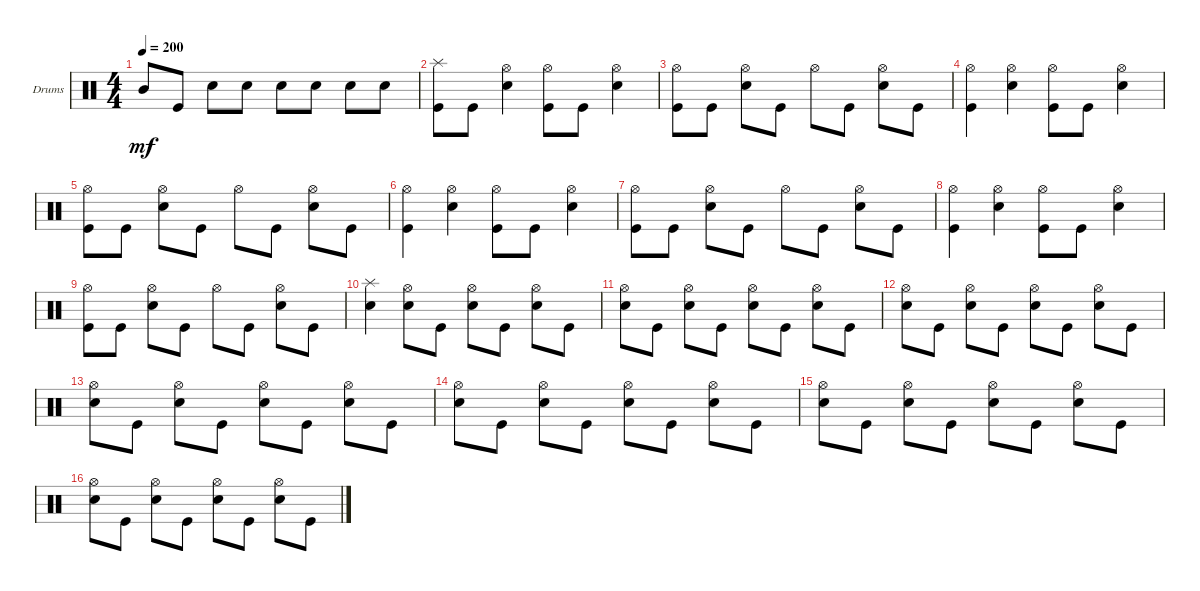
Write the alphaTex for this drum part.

\defaultSystemsLayout 4
\bracketExtendMode groupsimilarinstruments
\firstSystemTrackNameOrientation horizontal
\otherSystemsTrackNameOrientation horizontal
\track ("Hell on da drums" "Drums") {instrument percussion}
\staff {score}
\articulation defaults
\ts (4 4)
\tempo 200
\clef neutral
\ks c "Mid Tom (hit)".8{dy mf} "Kick (hit)".8 "Snare (hit) 2".8 "Snare (hit) 2".8 "Snare (hit) 2".8 "Snare (hit) 2".8 "Snare (hit) 2".8 "Snare (hit) 2".8
|
("Kick (hit)" "Splash (hit)").8 "Kick (hit)".8 ("Snare (hit) 2" "Hi-Hat (open)").4 ("Kick (hit)" "Hi-Hat (open)").8 "Kick (hit)".8 ("Snare (hit) 2" "Hi-Hat (open)").4 |
("Kick (hit)" "Hi-Hat (open)").8 "Kick (hit)".8 ("Snare (hit) 2" "Hi-Hat (open)").8 "Kick (hit)".8 "Hi-Hat (open)".8 "Kick (hit)".8 ("Snare (hit) 2" "Hi-Hat (open)").8 "Kick (hit)".8 |
("Kick (hit)" "Hi-Hat (open)").4 ("Snare (hit) 2" "Hi-Hat (open)").4 ("Kick (hit)" "Hi-Hat (open)").8 "Kick (hit)".8 ("Snare (hit) 2" "Hi-Hat (open)").4 |
("Kick (hit)" "Hi-Hat (open)").8 "Kick (hit)".8 ("Snare (hit) 2" "Hi-Hat (open)").8 "Kick (hit)".8 "Hi-Hat (open)".8 "Kick (hit)".8 ("Snare (hit) 2" "Hi-Hat (open)").8 "Kick (hit)".8 |
("Kick (hit)" "Hi-Hat (open)").4 ("Snare (hit) 2" "Hi-Hat (open)").4 ("Kick (hit)" "Hi-Hat (open)").8 "Kick (hit)".8 ("Snare (hit) 2" "Hi-Hat (open)").4 |
("Kick (hit)" "Hi-Hat (open)").8 "Kick (hit)".8 ("Snare (hit) 2" "Hi-Hat (open)").8 "Kick (hit)".8 "Hi-Hat (open)".8 "Kick (hit)".8 ("Snare (hit) 2" "Hi-Hat (open)").8 "Kick (hit)".8 |
("Kick (hit)" "Hi-Hat (open)").4 ("Snare (hit) 2" "Hi-Hat (open)").4 ("Kick (hit)" "Hi-Hat (open)").8 "Kick (hit)".8 ("Snare (hit) 2" "Hi-Hat (open)").4 |
("Kick (hit)" "Hi-Hat (open)").8 "Kick (hit)".8 ("Snare (hit) 2" "Hi-Hat (open)").8 "Kick (hit)".8 "Hi-Hat (open)".8 "Kick (hit)".8 ("Snare (hit) 2" "Hi-Hat (open)").8 "Kick (hit)".8 |
("Snare (hit) 2" "Splash (hit)").4 ("Snare (hit) 2" "Hi-Hat (open)").8 "Kick (hit)".8 ("Snare (hit) 2" "Hi-Hat (open)").8 "Kick (hit)".8 ("Snare (hit) 2" "Hi-Hat (open)").8 "Kick (hit)".8 |
("Snare (hit) 2" "Hi-Hat (open)").8 "Kick (hit)".8 ("Snare (hit) 2" "Hi-Hat (open)").8 "Kick (hit)".8 ("Snare (hit) 2" "Hi-Hat (open)").8 "Kick (hit)".8 ("Snare (hit) 2" "Hi-Hat (open)").8 "Kick (hit)".8 |
("Snare (hit) 2" "Hi-Hat (open)").8 "Kick (hit)".8 ("Snare (hit) 2" "Hi-Hat (open)").8 "Kick (hit)".8 ("Snare (hit) 2" "Hi-Hat (open)").8 "Kick (hit)".8 ("Snare (hit) 2" "Hi-Hat (open)").8 "Kick (hit)".8 |
("Snare (hit) 2" "Hi-Hat (open)").8 "Kick (hit)".8 ("Snare (hit) 2" "Hi-Hat (open)").8 "Kick (hit)".8 ("Snare (hit) 2" "Hi-Hat (open)").8 "Kick (hit)".8 ("Snare (hit) 2" "Hi-Hat (open)").8 "Kick (hit)".8 |
("Snare (hit) 2" "Hi-Hat (open)").8 "Kick (hit)".8 ("Snare (hit) 2" "Hi-Hat (open)").8 "Kick (hit)".8 ("Snare (hit) 2" "Hi-Hat (open)").8 "Kick (hit)".8 ("Snare (hit) 2" "Hi-Hat (open)").8 "Kick (hit)".8 |
("Snare (hit) 2" "Hi-Hat (open)").8 "Kick (hit)".8 ("Snare (hit) 2" "Hi-Hat (open)").8 "Kick (hit)".8 ("Snare (hit) 2" "Hi-Hat (open)").8 "Kick (hit)".8 ("Snare (hit) 2" "Hi-Hat (open)").8 "Kick (hit)".8 |
("Snare (hit) 2" "Hi-Hat (open)").8 "Kick (hit)".8 ("Snare (hit) 2" "Hi-Hat (open)").8 "Kick (hit)".8 ("Snare (hit) 2" "Hi-Hat (open)").8 "Kick (hit)".8 ("Snare (hit) 2" "Hi-Hat (open)").8 "Kick (hit)".8
